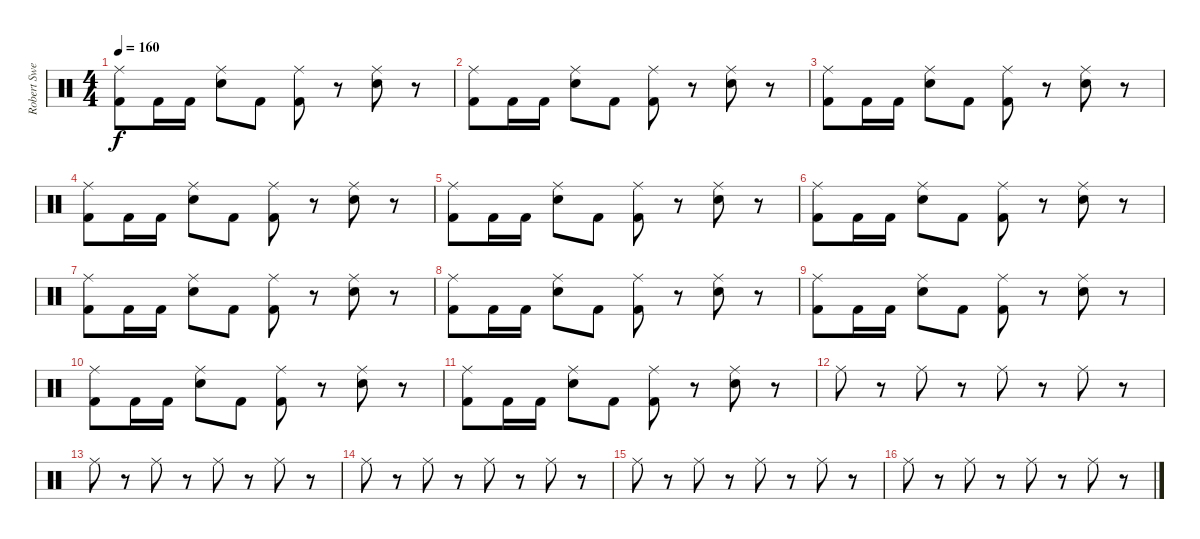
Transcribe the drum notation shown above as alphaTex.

\track ("Robert Sweet" "Robert Swe") {instrument percussion}
\staff {score}
\articulation defaults
\ts (4 4)
\tempo 160
\clef neutral
\ks c
("Ride (middle)" "Kick (hit) 2").8{dy f} "Kick (hit) 2".16 "Kick (hit) 2".16 ("Ride (middle)" "Electric Snare (hit)").8 "Kick (hit) 2".8 ("Ride (middle)" "Kick (hit) 2").8 r.8 ("Ride (middle)" "Electric Snare (hit)").8 r.8 |
("Ride (middle)" "Kick (hit) 2").8 "Kick (hit) 2".16 "Kick (hit) 2".16 ("Ride (middle)" "Electric Snare (hit)").8 "Kick (hit) 2".8 ("Ride (middle)" "Kick (hit) 2").8 r.8 ("Ride (middle)" "Electric Snare (hit)").8 r.8 |
("Ride (middle)" "Kick (hit) 2").8 "Kick (hit) 2".16 "Kick (hit) 2".16 ("Ride (middle)" "Electric Snare (hit)").8 "Kick (hit) 2".8 ("Ride (middle)" "Kick (hit) 2").8 r.8 ("Ride (middle)" "Electric Snare (hit)").8 r.8 |
("Ride (middle)" "Kick (hit) 2").8 "Kick (hit) 2".16 "Kick (hit) 2".16 ("Ride (middle)" "Electric Snare (hit)").8 "Kick (hit) 2".8 ("Ride (middle)" "Kick (hit) 2").8 r.8 ("Ride (middle)" "Electric Snare (hit)").8 r.8 |
("Ride (middle)" "Kick (hit) 2").8 "Kick (hit) 2".16 "Kick (hit) 2".16 ("Ride (middle)" "Electric Snare (hit)").8 "Kick (hit) 2".8 ("Ride (middle)" "Kick (hit) 2").8 r.8 ("Ride (middle)" "Electric Snare (hit)").8 r.8 |
("Ride (middle)" "Kick (hit) 2").8 "Kick (hit) 2".16 "Kick (hit) 2".16 ("Ride (middle)" "Electric Snare (hit)").8 "Kick (hit) 2".8 ("Ride (middle)" "Kick (hit) 2").8 r.8 ("Ride (middle)" "Electric Snare (hit)").8 r.8 |
("Ride (middle)" "Kick (hit) 2").8 "Kick (hit) 2".16 "Kick (hit) 2".16 ("Ride (middle)" "Electric Snare (hit)").8 "Kick (hit) 2".8 ("Ride (middle)" "Kick (hit) 2").8 r.8 ("Ride (middle)" "Electric Snare (hit)").8 r.8 |
("Ride (middle)" "Kick (hit) 2").8 "Kick (hit) 2".16 "Kick (hit) 2".16 ("Ride (middle)" "Electric Snare (hit)").8 "Kick (hit) 2".8 ("Ride (middle)" "Kick (hit) 2").8 r.8 ("Ride (middle)" "Electric Snare (hit)").8 r.8 |
("Ride (middle)" "Kick (hit) 2").8 "Kick (hit) 2".16 "Kick (hit) 2".16 ("Ride (middle)" "Electric Snare (hit)").8 "Kick (hit) 2".8 ("Ride (middle)" "Kick (hit) 2").8 r.8 ("Ride (middle)" "Electric Snare (hit)").8 r.8 |
("Ride (middle)" "Kick (hit) 2").8 "Kick (hit) 2".16 "Kick (hit) 2".16 ("Ride (middle)" "Electric Snare (hit)").8 "Kick (hit) 2".8 ("Ride (middle)" "Kick (hit) 2").8 r.8 ("Ride (middle)" "Electric Snare (hit)").8 r.8 |
("Ride (middle)" "Kick (hit) 2").8 "Kick (hit) 2".16 "Kick (hit) 2".16 ("Ride (middle)" "Electric Snare (hit)").8 "Kick (hit) 2".8 ("Ride (middle)" "Kick (hit) 2").8 r.8 ("Ride (middle)" "Electric Snare (hit)").8 r.8 |
"Ride (middle)".8 r.8 "Ride (middle)".8 r.8 "Ride (middle)".8 r.8 "Ride (middle)".8 r.8 |
"Ride (middle)".8 r.8 "Ride (middle)".8 r.8 "Ride (middle)".8 r.8 "Ride (middle)".8 r.8 |
"Ride (middle)".8 r.8 "Ride (middle)".8 r.8 "Ride (middle)".8 r.8 "Ride (middle)".8 r.8 |
"Ride (middle)".8 r.8 "Ride (middle)".8 r.8 "Ride (middle)".8 r.8 "Ride (middle)".8 r.8 |
"Ride (middle)".8 r.8 "Ride (middle)".8 r.8 "Ride (middle)".8 r.8 "Ride (middle)".8 r.8
